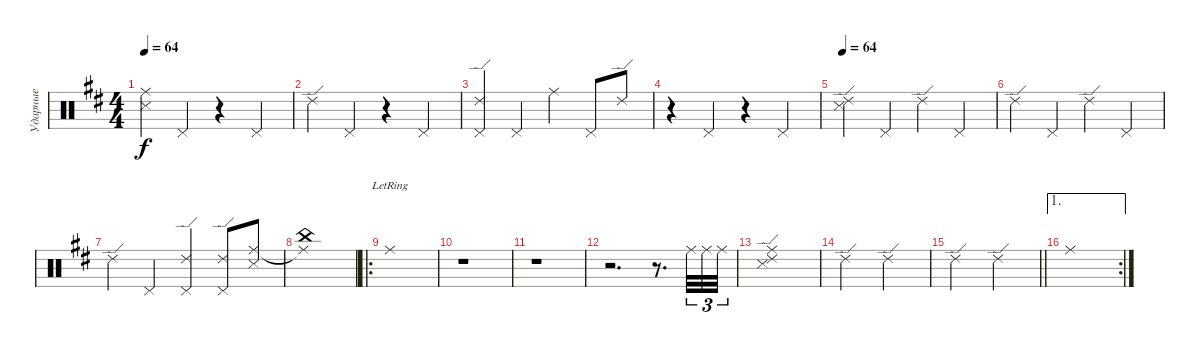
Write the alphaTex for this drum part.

\track ("Ударные" "Ударные") {instrument percussion}
\staff {score}
\articulation defaults
\ts (4 4)
\tempo 64
\tempo 62
\tempo 64
\clef neutral
\ks d
("Ride (middle)" "Snare (side stick) 3").4{dy f} "Pedal Hi-Hat (hit)".4 r.4 "Pedal Hi-Hat (hit)".4 |
"Ride (edge) 2".4 "Pedal Hi-Hat (hit)".4 r.4 "Pedal Hi-Hat (hit)".4 |
("Ride (edge) 2" "Pedal Hi-Hat (hit)").4 "Pedal Hi-Hat (hit)".4 "Ride (middle)".4 "Pedal Hi-Hat (hit)".8 "Ride (edge) 2".8 |
r.4 "Pedal Hi-Hat (hit)".4 r.4 "Pedal Hi-Hat (hit)".4 |
\tempo 64
("Ride (edge) 2" "Snare (side stick) 3").4 "Pedal Hi-Hat (hit)".4 "Ride (edge) 2".4 "Pedal Hi-Hat (hit)".4 |
"Ride (edge) 2".4 "Pedal Hi-Hat (hit)".4 "Ride (edge) 2".4 "Pedal Hi-Hat (hit)".4 |
"Ride (edge) 2".4 "Pedal Hi-Hat (hit)".4 ("Ride (edge) 2" "Pedal Hi-Hat (hit)").4 ("Ride (edge) 2" "Pedal Hi-Hat (hit)").8 ("Ride (middle)" "Snare (side stick) 3").8 |
("Ride (middle)"{t} "China (hit)").1 |
\ro "Ride (middle)"{lr}.1
|
r.1 |
r.1 |
r.2{d} r.8{d} "Ride (middle)".32{tu (3 2) volume 8} "Ride (middle)".32{tu (3 2) volume 10} "Ride (middle)".32{tu (3 2) volume 12} |
("Ride (middle)" "Ride (edge) 2" "Snare (side stick) 3").1{volume 13} |
"Ride (edge) 2".2 "Ride (edge) 2".2 |
\barLineRight lightlight "Ride (edge) 2".2 "Ride (edge) 2".2
|
\ae 1
\rc 2 "Ride (middle)".1
